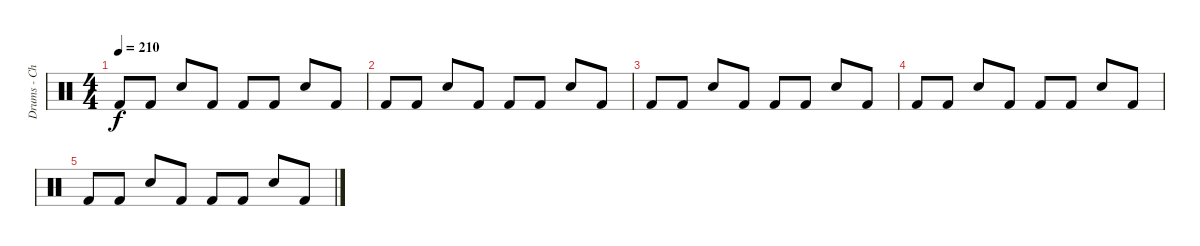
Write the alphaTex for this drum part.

\track ("Drums - Chad Smith" "Drums - Ch") {instrument percussion}
\staff {score}
\articulation defaults
\ts (4 4)
\tempo 210
\clef neutral
\ks c "Kick (hit) 2".8{dy f} "Kick (hit) 2".8 "Electric Snare (hit)".8 "Kick (hit) 2".8 "Kick (hit) 2".8 "Kick (hit) 2".8 "Electric Snare (hit)".8 "Kick (hit) 2".8
|
"Kick (hit) 2".8 "Kick (hit) 2".8 "Electric Snare (hit)".8 "Kick (hit) 2".8 "Kick (hit) 2".8 "Kick (hit) 2".8 "Electric Snare (hit)".8 "Kick (hit) 2".8 |
"Kick (hit) 2".8 "Kick (hit) 2".8 "Electric Snare (hit)".8 "Kick (hit) 2".8 "Kick (hit) 2".8 "Kick (hit) 2".8 "Electric Snare (hit)".8 "Kick (hit) 2".8 |
"Kick (hit) 2".8 "Kick (hit) 2".8 "Electric Snare (hit)".8 "Kick (hit) 2".8 "Kick (hit) 2".8 "Kick (hit) 2".8 "Electric Snare (hit)".8 "Kick (hit) 2".8 |
"Kick (hit) 2".8 "Kick (hit) 2".8 "Electric Snare (hit)".8 "Kick (hit) 2".8 "Kick (hit) 2".8 "Kick (hit) 2".8 "Electric Snare (hit)".8 "Kick (hit) 2".8
